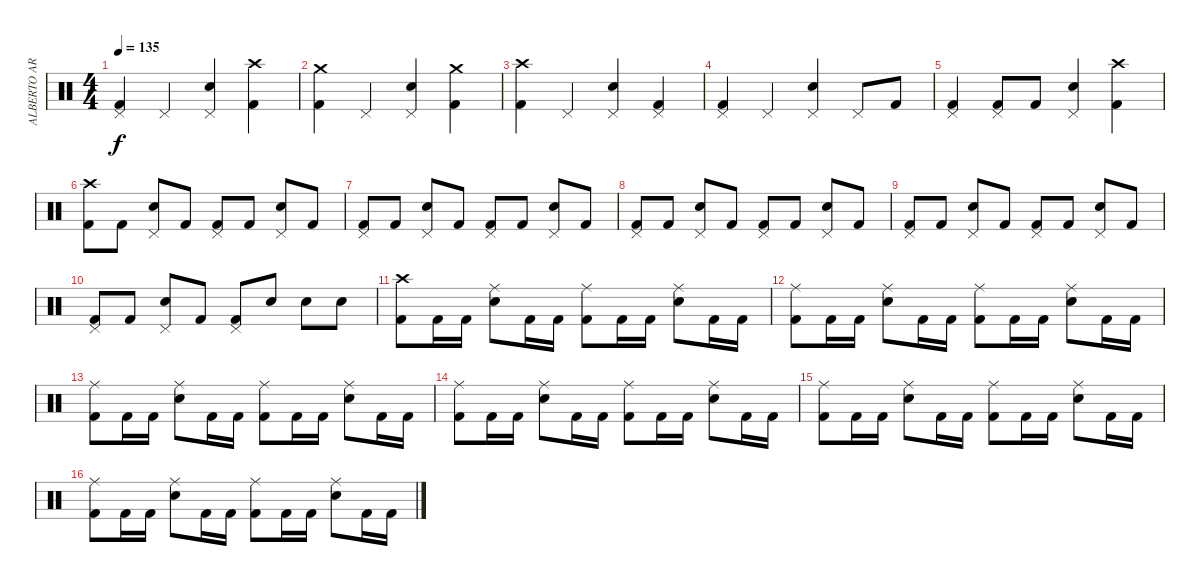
\track ("ALBERTO ARDINES" "ALBERTO AR") {instrument percussion}
\staff {score}
\articulation defaults
\ts (4 4)
\tempo 135
\clef neutral
\ks c
("Pedal Hi-Hat (hit)" "Kick (hit) 2").4{dy f} "Pedal Hi-Hat (hit)".4 ("Pedal Hi-Hat (hit)" "Electric Snare (hit)").4 ("Crash high (hit)" "Kick (hit) 2").4 |
("Crash medium (hit)" "Kick (hit) 2").4 "Pedal Hi-Hat (hit)".4 ("Pedal Hi-Hat (hit)" "Electric Snare (hit)").4 ("Crash medium (hit)" "Kick (hit) 2").4 |
("Crash high (hit)" "Kick (hit) 2").4 "Pedal Hi-Hat (hit)".4 ("Pedal Hi-Hat (hit)" "Electric Snare (hit)").4 ("Pedal Hi-Hat (hit)" "Kick (hit) 2").4 |
("Pedal Hi-Hat (hit)" "Kick (hit) 2").4 "Pedal Hi-Hat (hit)".4 ("Pedal Hi-Hat (hit)" "Electric Snare (hit)").4 "Pedal Hi-Hat (hit)".8 "Kick (hit) 2".8 |
("Pedal Hi-Hat (hit)" "Kick (hit) 2").4 ("Pedal Hi-Hat (hit)" "Kick (hit) 2").8 "Kick (hit) 2".8 ("Pedal Hi-Hat (hit)" "Electric Snare (hit)").4 ("Crash high (hit)" "Kick (hit) 2").4 |
("Crash high (hit)" "Kick (hit) 2").8 "Kick (hit) 2".8 ("Pedal Hi-Hat (hit)" "Electric Snare (hit)").8 "Kick (hit) 2".8 ("Pedal Hi-Hat (hit)" "Kick (hit) 2").8 "Kick (hit) 2".8 ("Pedal Hi-Hat (hit)" "Electric Snare (hit)").8 "Kick (hit) 2".8 |
("Pedal Hi-Hat (hit)" "Kick (hit) 2").8 "Kick (hit) 2".8 ("Pedal Hi-Hat (hit)" "Electric Snare (hit)").8 "Kick (hit) 2".8 ("Pedal Hi-Hat (hit)" "Kick (hit) 2").8 "Kick (hit) 2".8 ("Pedal Hi-Hat (hit)" "Electric Snare (hit)").8 "Kick (hit) 2".8 |
("Pedal Hi-Hat (hit)" "Kick (hit) 2").8 "Kick (hit) 2".8 ("Pedal Hi-Hat (hit)" "Electric Snare (hit)").8 "Kick (hit) 2".8 ("Pedal Hi-Hat (hit)" "Kick (hit) 2").8 "Kick (hit) 2".8 ("Pedal Hi-Hat (hit)" "Electric Snare (hit)").8 "Kick (hit) 2".8 |
("Pedal Hi-Hat (hit)" "Kick (hit) 2").8 "Kick (hit) 2".8 ("Pedal Hi-Hat (hit)" "Electric Snare (hit)").8 "Kick (hit) 2".8 ("Pedal Hi-Hat (hit)" "Kick (hit) 2").8 "Kick (hit) 2".8 ("Pedal Hi-Hat (hit)" "Electric Snare (hit)").8 "Kick (hit) 2".8 |
("Pedal Hi-Hat (hit)" "Kick (hit) 2").8 "Kick (hit) 2".8 ("Pedal Hi-Hat (hit)" "Electric Snare (hit)").8 "Kick (hit) 2".8 ("Pedal Hi-Hat (hit)" "Kick (hit) 2").8 "Electric Snare (hit)".8 "Electric Snare (hit)".8 "Electric Snare (hit)".8 |
("Crash high (hit)" "Kick (hit) 2").8 "Kick (hit) 2".16 "Kick (hit) 2".16 ("Ride (middle)" "Electric Snare (hit)").8 "Kick (hit) 2".16 "Kick (hit) 2".16 ("Ride (middle)" "Kick (hit) 2").8 "Kick (hit) 2".16 "Kick (hit) 2".16 ("Ride (middle)" "Electric Snare (hit)").8 "Kick (hit) 2".16 "Kick (hit) 2".16 |
("Ride (middle)" "Kick (hit) 2").8 "Kick (hit) 2".16 "Kick (hit) 2".16 ("Ride (middle)" "Electric Snare (hit)").8 "Kick (hit) 2".16 "Kick (hit) 2".16 ("Ride (middle)" "Kick (hit) 2").8 "Kick (hit) 2".16 "Kick (hit) 2".16 ("Ride (middle)" "Electric Snare (hit)").8 "Kick (hit) 2".16 "Kick (hit) 2".16 |
("Ride (middle)" "Kick (hit) 2").8 "Kick (hit) 2".16 "Kick (hit) 2".16 ("Ride (middle)" "Electric Snare (hit)").8 "Kick (hit) 2".16 "Kick (hit) 2".16 ("Ride (middle)" "Kick (hit) 2").8 "Kick (hit) 2".16 "Kick (hit) 2".16 ("Ride (middle)" "Electric Snare (hit)").8 "Kick (hit) 2".16 "Kick (hit) 2".16 |
("Ride (middle)" "Kick (hit) 2").8 "Kick (hit) 2".16 "Kick (hit) 2".16 ("Ride (middle)" "Electric Snare (hit)").8 "Kick (hit) 2".16 "Kick (hit) 2".16 ("Ride (middle)" "Kick (hit) 2").8 "Kick (hit) 2".16 "Kick (hit) 2".16 ("Ride (middle)" "Electric Snare (hit)").8 "Kick (hit) 2".16 "Kick (hit) 2".16 |
("Ride (middle)" "Kick (hit) 2").8 "Kick (hit) 2".16 "Kick (hit) 2".16 ("Ride (middle)" "Electric Snare (hit)").8 "Kick (hit) 2".16 "Kick (hit) 2".16 ("Ride (middle)" "Kick (hit) 2").8 "Kick (hit) 2".16 "Kick (hit) 2".16 ("Ride (middle)" "Electric Snare (hit)").8 "Kick (hit) 2".16 "Kick (hit) 2".16 |
("Ride (middle)" "Kick (hit) 2").8 "Kick (hit) 2".16 "Kick (hit) 2".16 ("Ride (middle)" "Electric Snare (hit)").8 "Kick (hit) 2".16 "Kick (hit) 2".16 ("Ride (middle)" "Kick (hit) 2").8 "Kick (hit) 2".16 "Kick (hit) 2".16 ("Ride (middle)" "Electric Snare (hit)").8 "Kick (hit) 2".16 "Kick (hit) 2".16
